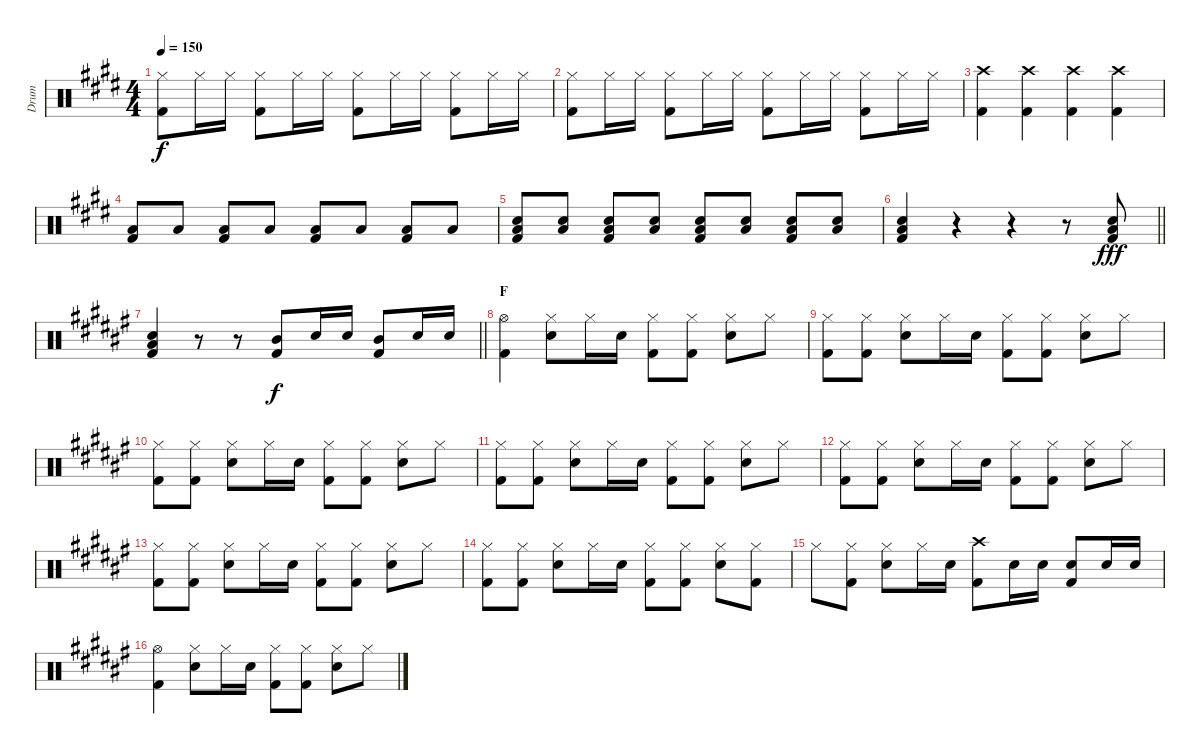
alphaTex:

\track ("Drum" "Drum") {instrument percussion}
\staff {score}
\articulation defaults
\ts (4 4)
\tempo 150
\clef neutral
\ks c#minor
("Hi-Hat (closed)" "Kick (hit) 2").8{dy f} "Hi-Hat (closed)".16 "Hi-Hat (closed)".16 ("Hi-Hat (closed)" "Kick (hit) 2").8 "Hi-Hat (closed)".16 "Hi-Hat (closed)".16 ("Hi-Hat (closed)" "Kick (hit) 2").8 "Hi-Hat (closed)".16 "Hi-Hat (closed)".16 ("Hi-Hat (closed)" "Kick (hit) 2").8 "Hi-Hat (closed)".16 "Hi-Hat (closed)".16 |
("Hi-Hat (closed)" "Kick (hit) 2").8 "Hi-Hat (closed)".16 "Hi-Hat (closed)".16 ("Hi-Hat (closed)" "Kick (hit) 2").8 "Hi-Hat (closed)".16 "Hi-Hat (closed)".16 ("Hi-Hat (closed)" "Kick (hit) 2").8 "Hi-Hat (closed)".16 "Hi-Hat (closed)".16 ("Hi-Hat (closed)" "Kick (hit) 2").8 "Hi-Hat (closed)".16 "Hi-Hat (closed)".16 |
("Crash high (hit)" "Kick (hit) 2").4 ("Crash high (hit)" "Kick (hit) 2").4 ("Crash high (hit)" "Kick (hit) 2").4 ("Crash high (hit)" "Kick (hit) 2").4 |
("Low Floor Tom (hit)" "Kick (hit) 2").8 "Low Floor Tom (hit)".8 ("Low Floor Tom (hit)" "Kick (hit) 2").8 "Low Floor Tom (hit)".8 ("Low Floor Tom (hit)" "Kick (hit) 2").8 "Low Floor Tom (hit)".8 ("Low Floor Tom (hit)" "Kick (hit) 2").8 "Low Floor Tom (hit)".8 |
("Snare (hit) 2" "Low Floor Tom (hit)" "Kick (hit) 2").8 ("Snare (hit) 2" "Low Floor Tom (hit)").8 ("Snare (hit) 2" "Low Floor Tom (hit)" "Kick (hit) 2").8 ("Snare (hit) 2" "Low Floor Tom (hit)").8 ("Snare (hit) 2" "Low Floor Tom (hit)" "Kick (hit) 2").8 ("Snare (hit) 2" "Low Floor Tom (hit)").8 ("Snare (hit) 2" "Low Floor Tom (hit)" "Kick (hit) 2").8 ("Snare (hit) 2" "Low Floor Tom (hit)").8 |
\barLineRight lightlight
("Snare (hit) 2" "Low Floor Tom (hit)" "Kick (hit) 2").4 r.4 r.4 r.8 ("Snare (hit) 2" "Low Floor Tom (hit)" "Kick (hit) 2").8{dy fff} |
\barLineRight lightlight
\ks d#minor
("Snare (hit) 2" "Low Floor Tom (hit)" "Kick (hit) 2").4 r.8 r.8 ("Mid Tom (hit)" "Kick (hit) 2").8{dy f} "Snare (hit) 2".16 "Snare (hit) 2".16 ("Mid Tom (hit)" "Kick (hit) 2").8 "Snare (hit) 2".16 "Snare (hit) 2".16 |
\section ("" "F")
("Hi-Hat (open)" "Kick (hit) 2").4 ("Hi-Hat (closed)" "Snare (hit) 2").8 "Hi-Hat (closed)".16 "Snare (hit) 2".16 ("Hi-Hat (closed)" "Kick (hit) 2").8 ("Hi-Hat (closed)" "Kick (hit) 2").8 ("Hi-Hat (closed)" "Snare (hit) 2").8 "Hi-Hat (closed)".8 |
("Hi-Hat (closed)" "Kick (hit) 2").8 ("Hi-Hat (closed)" "Kick (hit) 2").8 ("Hi-Hat (closed)" "Snare (hit) 2").8 "Hi-Hat (closed)".16 "Snare (hit) 2".16 ("Hi-Hat (closed)" "Kick (hit) 2").8 ("Hi-Hat (closed)" "Kick (hit) 2").8 ("Hi-Hat (closed)" "Snare (hit) 2").8 "Hi-Hat (closed)".8 |
("Hi-Hat (closed)" "Kick (hit) 2").8 ("Hi-Hat (closed)" "Kick (hit) 2").8 ("Hi-Hat (closed)" "Snare (hit) 2").8 "Hi-Hat (closed)".16 "Snare (hit) 2".16 ("Hi-Hat (closed)" "Kick (hit) 2").8 ("Hi-Hat (closed)" "Kick (hit) 2").8 ("Hi-Hat (closed)" "Snare (hit) 2").8 "Hi-Hat (closed)".8 |
("Hi-Hat (closed)" "Kick (hit) 2").8 ("Hi-Hat (closed)" "Kick (hit) 2").8 ("Hi-Hat (closed)" "Snare (hit) 2").8 "Hi-Hat (closed)".16 "Snare (hit) 2".16 ("Hi-Hat (closed)" "Kick (hit) 2").8 ("Hi-Hat (closed)" "Kick (hit) 2").8 ("Hi-Hat (closed)" "Snare (hit) 2").8 "Hi-Hat (closed)".8 |
("Hi-Hat (closed)" "Kick (hit) 2").8 ("Hi-Hat (closed)" "Kick (hit) 2").8 ("Hi-Hat (closed)" "Snare (hit) 2").8 "Hi-Hat (closed)".16 "Snare (hit) 2".16 ("Hi-Hat (closed)" "Kick (hit) 2").8 ("Hi-Hat (closed)" "Kick (hit) 2").8 ("Hi-Hat (closed)" "Snare (hit) 2").8 "Hi-Hat (closed)".8 |
("Hi-Hat (closed)" "Kick (hit) 2").8 ("Hi-Hat (closed)" "Kick (hit) 2").8 ("Hi-Hat (closed)" "Snare (hit) 2").8 "Hi-Hat (closed)".16 "Snare (hit) 2".16 ("Hi-Hat (closed)" "Kick (hit) 2").8 ("Hi-Hat (closed)" "Kick (hit) 2").8 ("Hi-Hat (closed)" "Snare (hit) 2").8 "Hi-Hat (closed)".8 |
("Hi-Hat (closed)" "Kick (hit) 2").8 ("Hi-Hat (closed)" "Kick (hit) 2").8 ("Hi-Hat (closed)" "Snare (hit) 2").8 "Hi-Hat (closed)".16 "Snare (hit) 2".16 ("Hi-Hat (closed)" "Kick (hit) 2").8 ("Hi-Hat (closed)" "Kick (hit) 2").8 ("Hi-Hat (closed)" "Snare (hit) 2").8 ("Hi-Hat (closed)" "Kick (hit) 2").8 |
"Hi-Hat (closed)".8 ("Hi-Hat (closed)" "Kick (hit) 2").8 ("Hi-Hat (closed)" "Snare (hit) 2").8 "Hi-Hat (closed)".16 "Snare (hit) 2".16 ("Crash high (hit)" "Kick (hit) 2").8 "Snare (hit) 2".16 "Snare (hit) 2".16 ("Snare (hit) 2" "Kick (hit) 2").8 "Snare (hit) 2".16 "Snare (hit) 2".16 |
("Hi-Hat (open)" "Kick (hit) 2").4 ("Hi-Hat (closed)" "Snare (hit) 2").8 "Hi-Hat (closed)".16 "Snare (hit) 2".16 ("Hi-Hat (closed)" "Kick (hit) 2").8 ("Hi-Hat (closed)" "Kick (hit) 2").8 ("Hi-Hat (closed)" "Snare (hit) 2").8 "Hi-Hat (closed)".8
